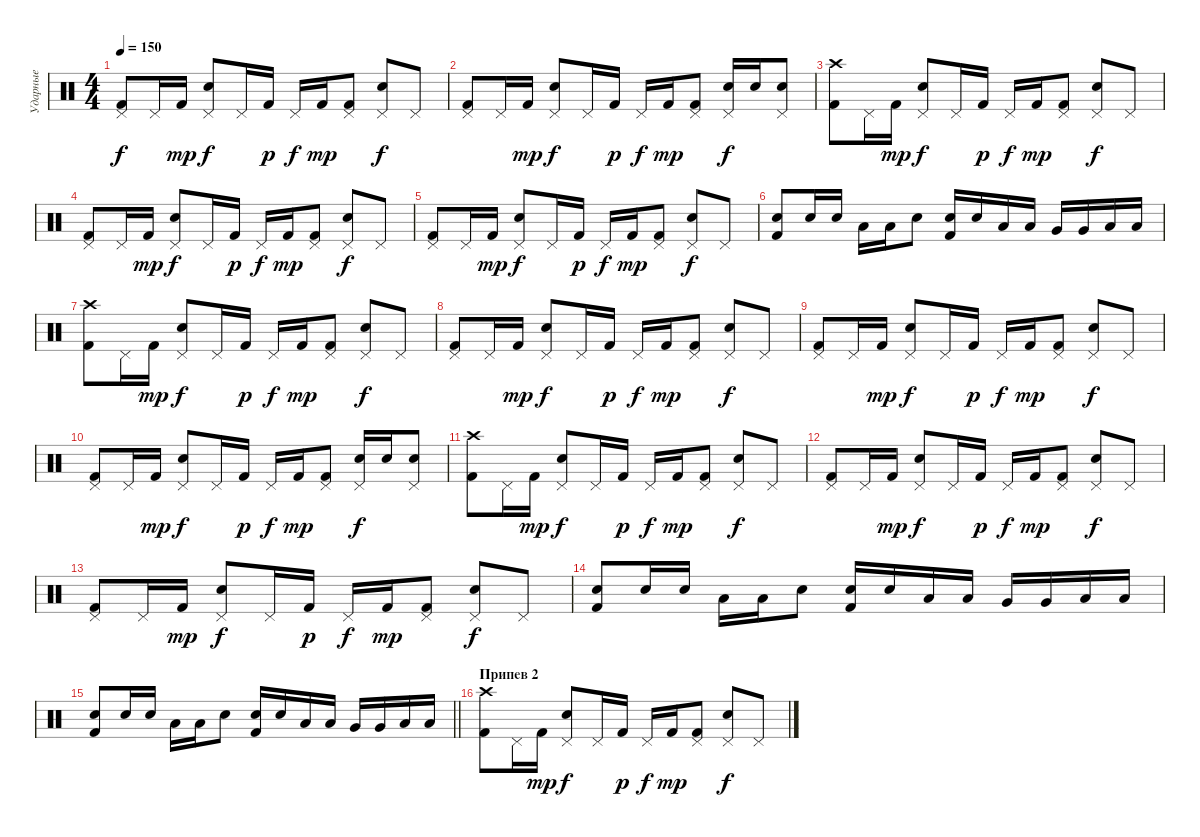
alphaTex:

\track ("Ударные" "Ударные") {instrument percussion}
\staff {score}
\articulation defaults
\ts (4 4)
\tempo 150
\clef neutral
\ks c
("Pedal Hi-Hat (hit)" "Kick (hit) 2").8{dy f} "Pedal Hi-Hat (hit)".16 "Kick (hit) 2".16{dy mp} ("Pedal Hi-Hat (hit)" "Snare (hit) 2").8{dy f} "Pedal Hi-Hat (hit)".16 "Kick (hit) 2".16{dy p} "Pedal Hi-Hat (hit)".16{dy f} "Kick (hit) 2".16{dy mp} ("Pedal Hi-Hat (hit)" "Kick (hit) 2").8 ("Pedal Hi-Hat (hit)" "Snare (hit) 2").8{dy f} "Pedal Hi-Hat (hit)".8 |
("Pedal Hi-Hat (hit)" "Kick (hit) 2").8 "Pedal Hi-Hat (hit)".16 "Kick (hit) 2".16{dy mp} ("Pedal Hi-Hat (hit)" "Snare (hit) 2").8{dy f} "Pedal Hi-Hat (hit)".16 "Kick (hit) 2".16{dy p} "Pedal Hi-Hat (hit)".16{dy f} "Kick (hit) 2".16{dy mp} ("Pedal Hi-Hat (hit)" "Kick (hit) 2").8 ("Pedal Hi-Hat (hit)" "Snare (hit) 2").16{dy f} "Snare (hit) 2".16 ("Pedal Hi-Hat (hit)" "Snare (hit) 2").8 |
("Crash high (hit)" "Kick (hit) 2").8 "Pedal Hi-Hat (hit)".16 "Kick (hit) 2".16{dy mp} ("Pedal Hi-Hat (hit)" "Snare (hit) 2").8{dy f} "Pedal Hi-Hat (hit)".16 "Kick (hit) 2".16{dy p} "Pedal Hi-Hat (hit)".16{dy f} "Kick (hit) 2".16{dy mp} ("Pedal Hi-Hat (hit)" "Kick (hit) 2").8 ("Pedal Hi-Hat (hit)" "Snare (hit) 2").8{dy f} "Pedal Hi-Hat (hit)".8 |
("Pedal Hi-Hat (hit)" "Kick (hit) 2").8 "Pedal Hi-Hat (hit)".16 "Kick (hit) 2".16{dy mp} ("Pedal Hi-Hat (hit)" "Snare (hit) 2").8{dy f} "Pedal Hi-Hat (hit)".16 "Kick (hit) 2".16{dy p} "Pedal Hi-Hat (hit)".16{dy f} "Kick (hit) 2".16{dy mp} ("Pedal Hi-Hat (hit)" "Kick (hit) 2").8 ("Pedal Hi-Hat (hit)" "Snare (hit) 2").8{dy f} "Pedal Hi-Hat (hit)".8 |
("Pedal Hi-Hat (hit)" "Kick (hit) 2").8 "Pedal Hi-Hat (hit)".16 "Kick (hit) 2".16{dy mp} ("Pedal Hi-Hat (hit)" "Snare (hit) 2").8{dy f} "Pedal Hi-Hat (hit)".16 "Kick (hit) 2".16{dy p} "Pedal Hi-Hat (hit)".16{dy f} "Kick (hit) 2".16{dy mp} ("Pedal Hi-Hat (hit)" "Kick (hit) 2").8 ("Pedal Hi-Hat (hit)" "Snare (hit) 2").8{dy f} "Pedal Hi-Hat (hit)".8 |
("Snare (hit) 2" "Kick (hit) 2").8 "Snare (hit) 2".16 "Snare (hit) 2".16 "Low Floor Tom (hit)".16 "Low Floor Tom (hit)".16 "Snare (hit) 2".8 ("Snare (hit) 2" "Kick (hit) 2").16 "Snare (hit) 2".16 "Low Tom (hit)".16 "Low Tom (hit)".16 "Very Low Tom (hit)".16 "Very Low Tom (hit)".16 "Low Floor Tom (hit)".16 "Low Floor Tom (hit)".16 |
("Crash high (hit)" "Kick (hit) 2").8 "Pedal Hi-Hat (hit)".16 "Kick (hit) 2".16{dy mp} ("Pedal Hi-Hat (hit)" "Snare (hit) 2").8{dy f} "Pedal Hi-Hat (hit)".16 "Kick (hit) 2".16{dy p} "Pedal Hi-Hat (hit)".16{dy f} "Kick (hit) 2".16{dy mp} ("Pedal Hi-Hat (hit)" "Kick (hit) 2").8 ("Pedal Hi-Hat (hit)" "Snare (hit) 2").8{dy f} "Pedal Hi-Hat (hit)".8 |
("Pedal Hi-Hat (hit)" "Kick (hit) 2").8 "Pedal Hi-Hat (hit)".16 "Kick (hit) 2".16{dy mp} ("Pedal Hi-Hat (hit)" "Snare (hit) 2").8{dy f} "Pedal Hi-Hat (hit)".16 "Kick (hit) 2".16{dy p} "Pedal Hi-Hat (hit)".16{dy f} "Kick (hit) 2".16{dy mp} ("Pedal Hi-Hat (hit)" "Kick (hit) 2").8 ("Pedal Hi-Hat (hit)" "Snare (hit) 2").8{dy f} "Pedal Hi-Hat (hit)".8 |
("Pedal Hi-Hat (hit)" "Kick (hit) 2").8 "Pedal Hi-Hat (hit)".16 "Kick (hit) 2".16{dy mp} ("Pedal Hi-Hat (hit)" "Snare (hit) 2").8{dy f} "Pedal Hi-Hat (hit)".16 "Kick (hit) 2".16{dy p} "Pedal Hi-Hat (hit)".16{dy f} "Kick (hit) 2".16{dy mp} ("Pedal Hi-Hat (hit)" "Kick (hit) 2").8 ("Pedal Hi-Hat (hit)" "Snare (hit) 2").8{dy f} "Pedal Hi-Hat (hit)".8 |
("Pedal Hi-Hat (hit)" "Kick (hit) 2").8 "Pedal Hi-Hat (hit)".16 "Kick (hit) 2".16{dy mp} ("Pedal Hi-Hat (hit)" "Snare (hit) 2").8{dy f} "Pedal Hi-Hat (hit)".16 "Kick (hit) 2".16{dy p} "Pedal Hi-Hat (hit)".16{dy f} "Kick (hit) 2".16{dy mp} ("Pedal Hi-Hat (hit)" "Kick (hit) 2").8 ("Pedal Hi-Hat (hit)" "Snare (hit) 2").16{dy f} "Snare (hit) 2".16 ("Pedal Hi-Hat (hit)" "Snare (hit) 2").8 |
("Crash high (hit)" "Kick (hit) 2").8 "Pedal Hi-Hat (hit)".16 "Kick (hit) 2".16{dy mp} ("Pedal Hi-Hat (hit)" "Snare (hit) 2").8{dy f} "Pedal Hi-Hat (hit)".16 "Kick (hit) 2".16{dy p} "Pedal Hi-Hat (hit)".16{dy f} "Kick (hit) 2".16{dy mp} ("Pedal Hi-Hat (hit)" "Kick (hit) 2").8 ("Pedal Hi-Hat (hit)" "Snare (hit) 2").8{dy f} "Pedal Hi-Hat (hit)".8 |
("Pedal Hi-Hat (hit)" "Kick (hit) 2").8 "Pedal Hi-Hat (hit)".16 "Kick (hit) 2".16{dy mp} ("Pedal Hi-Hat (hit)" "Snare (hit) 2").8{dy f} "Pedal Hi-Hat (hit)".16 "Kick (hit) 2".16{dy p} "Pedal Hi-Hat (hit)".16{dy f} "Kick (hit) 2".16{dy mp} ("Pedal Hi-Hat (hit)" "Kick (hit) 2").8 ("Pedal Hi-Hat (hit)" "Snare (hit) 2").8{dy f} "Pedal Hi-Hat (hit)".8 |
("Pedal Hi-Hat (hit)" "Kick (hit) 2").8 "Pedal Hi-Hat (hit)".16 "Kick (hit) 2".16{dy mp} ("Pedal Hi-Hat (hit)" "Snare (hit) 2").8{dy f} "Pedal Hi-Hat (hit)".16 "Kick (hit) 2".16{dy p} "Pedal Hi-Hat (hit)".16{dy f} "Kick (hit) 2".16{dy mp} ("Pedal Hi-Hat (hit)" "Kick (hit) 2").8 ("Pedal Hi-Hat (hit)" "Snare (hit) 2").8{dy f} "Pedal Hi-Hat (hit)".8 |
("Snare (hit) 2" "Kick (hit) 2").8 "Snare (hit) 2".16 "Snare (hit) 2".16 "Low Floor Tom (hit)".16 "Low Floor Tom (hit)".16 "Snare (hit) 2".8 ("Snare (hit) 2" "Kick (hit) 2").16 "Snare (hit) 2".16 "Low Tom (hit)".16 "Low Tom (hit)".16 "Very Low Tom (hit)".16 "Very Low Tom (hit)".16 "Low Floor Tom (hit)".16 "Low Floor Tom (hit)".16 |
\barLineRight lightlight
("Snare (hit) 2" "Kick (hit) 2").8 "Snare (hit) 2".16 "Snare (hit) 2".16 "Low Floor Tom (hit)".16 "Low Floor Tom (hit)".16 "Snare (hit) 2".8 ("Snare (hit) 2" "Kick (hit) 2").16 "Snare (hit) 2".16 "Low Tom (hit)".16 "Low Tom (hit)".16 "Very Low Tom (hit)".16 "Very Low Tom (hit)".16 "Low Floor Tom (hit)".16 "Low Floor Tom (hit)".16 |
\section ("" "Припев 2")
("Crash high (hit)" "Kick (hit) 2").8 "Pedal Hi-Hat (hit)".16 "Kick (hit) 2".16{dy mp} ("Pedal Hi-Hat (hit)" "Snare (hit) 2").8{dy f} "Pedal Hi-Hat (hit)".16 "Kick (hit) 2".16{dy p} "Pedal Hi-Hat (hit)".16{dy f} "Kick (hit) 2".16{dy mp} ("Pedal Hi-Hat (hit)" "Kick (hit) 2").8 ("Pedal Hi-Hat (hit)" "Snare (hit) 2").8{dy f} "Pedal Hi-Hat (hit)".8
